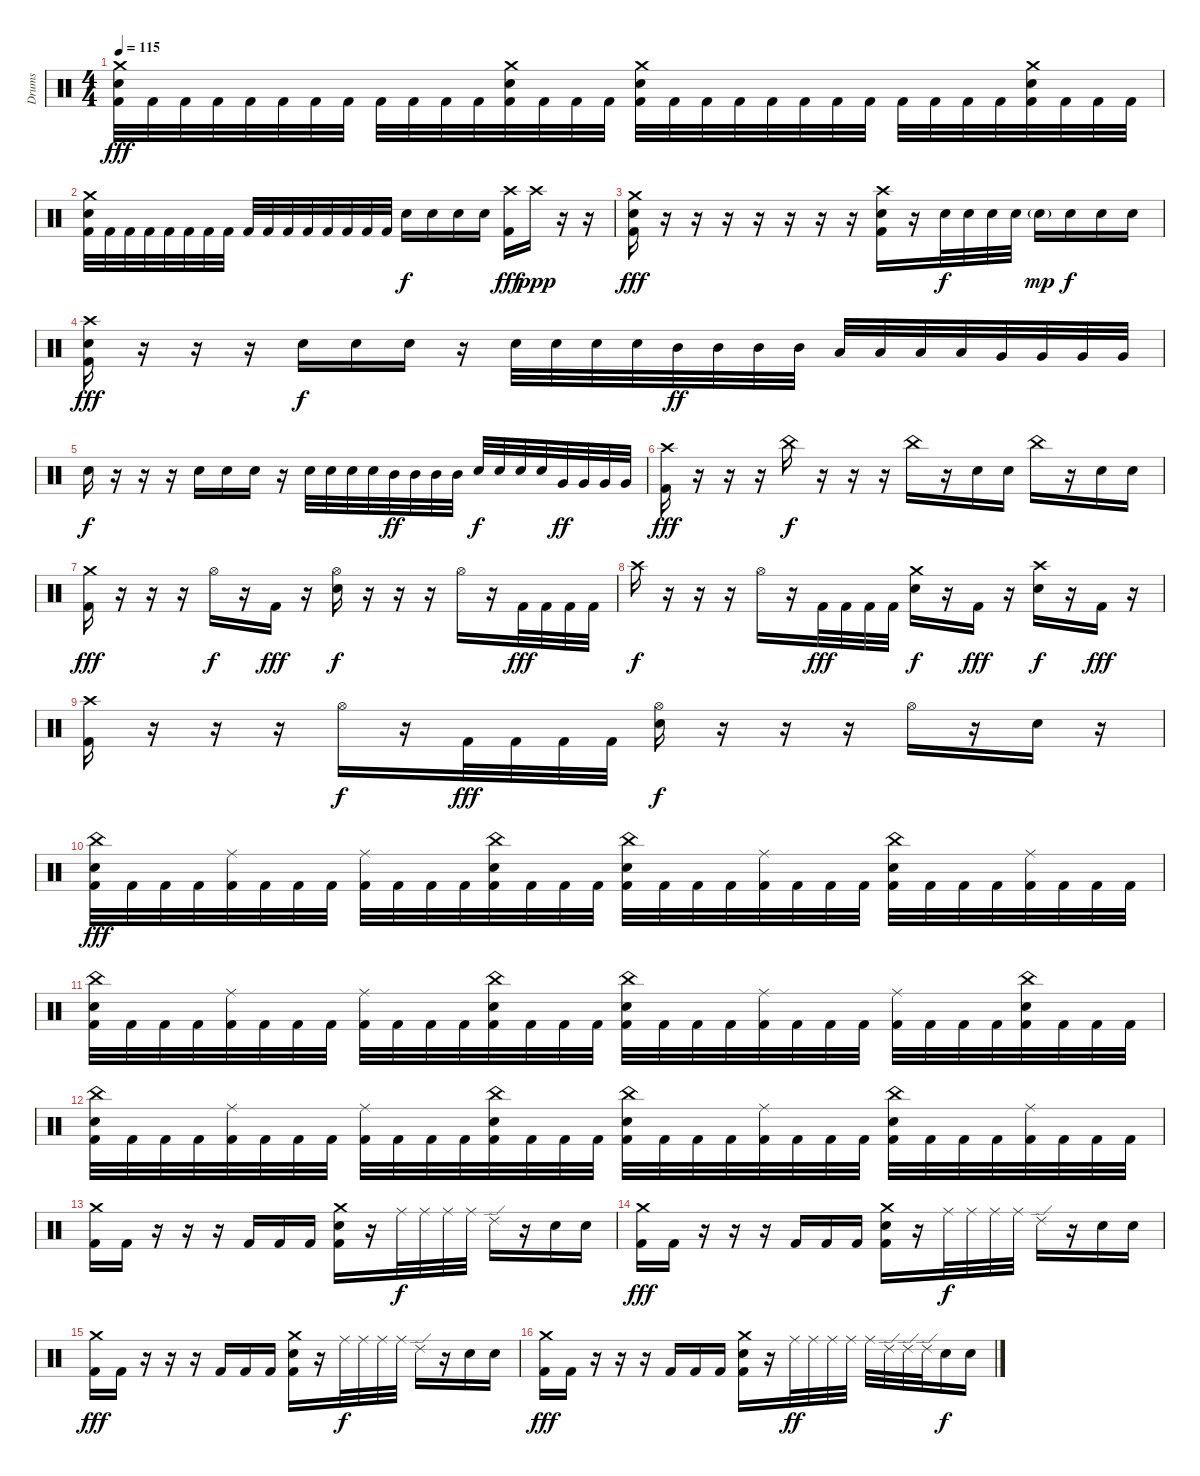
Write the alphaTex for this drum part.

\track ("Drums" "Drums") {instrument percussion}
\staff {score}
\articulation defaults
\ts (4 4)
\tempo 115
\clef neutral
\ks c
("Crash medium (hit)" "Electric Snare (hit)" "Kick (hit) 2").32{dy fff} "Kick (hit) 2".32 "Kick (hit) 2".32 "Kick (hit) 2".32 "Kick (hit) 2".32 "Kick (hit) 2".32 "Kick (hit) 2".32 "Kick (hit) 2".32 "Kick (hit) 2".32 "Kick (hit) 2".32 "Kick (hit) 2".32 "Kick (hit) 2".32 ("Crash medium (hit)" "Electric Snare (hit)" "Kick (hit) 2").32 "Kick (hit) 2".32 "Kick (hit) 2".32 "Kick (hit) 2".32 ("Crash medium (hit)" "Electric Snare (hit)" "Kick (hit) 2").32 "Kick (hit) 2".32 "Kick (hit) 2".32 "Kick (hit) 2".32 "Kick (hit) 2".32 "Kick (hit) 2".32 "Kick (hit) 2".32 "Kick (hit) 2".32 "Kick (hit) 2".32 "Kick (hit) 2".32 "Kick (hit) 2".32 "Kick (hit) 2".32 ("Crash medium (hit)" "Electric Snare (hit)" "Kick (hit) 2").32 "Kick (hit) 2".32 "Kick (hit) 2".32 "Kick (hit) 2".32 |
("Crash medium (hit)" "Electric Snare (hit)" "Kick (hit) 2").32 "Kick (hit) 2".32 "Kick (hit) 2".32 "Kick (hit) 2".32 "Kick (hit) 2".32 "Kick (hit) 2".32 "Kick (hit) 2".32 "Kick (hit) 2".32 "Kick (hit) 2".32 "Kick (hit) 2".32 "Kick (hit) 2".32 "Kick (hit) 2".32 "Kick (hit) 2".32 "Kick (hit) 2".32 "Kick (hit) 2".32 "Kick (hit) 2".32 "Electric Snare (hit)".16{dy f} "Electric Snare (hit)".16 "Electric Snare (hit)".16 "Electric Snare (hit)".16 ("Crash high (hit)" "Kick (hit) 2").16{dy fff} "Crash high (hit)".16{dy ppp} r.16 r.16 |
("Crash medium (hit)" "Electric Snare (hit)" "Kick (hit) 2").16{dy fff} r.16 r.16 r.16 r.16 r.16 r.16 r.16 ("Crash high (hit)" "Electric Snare (hit)" "Kick (hit) 2").16 r.16 "Electric Snare (hit)".32{dy f} "Electric Snare (hit)".32 "Electric Snare (hit)".32 "Electric Snare (hit)".32 "Electric Snare (hit)"{g}.16{dy mp} "Electric Snare (hit)".16{dy f} "Electric Snare (hit)".16 "Electric Snare (hit)".16 |
("Crash high (hit)" "Electric Snare (hit)" "Kick (hit) 2").16{dy fff} r.16 r.16 r.16 "Electric Snare (hit)".16{dy f} "Electric Snare (hit)".16 "Electric Snare (hit)".16 r.16 "Electric Snare (hit)".32 "Electric Snare (hit)".32 "Electric Snare (hit)".32 "Electric Snare (hit)".32 "Mid Tom (hit)".32{dy ff} "Mid Tom (hit)".32 "Mid Tom (hit)".32 "Mid Tom (hit)".32 "Low Tom (hit)".32 "Low Tom (hit)".32 "Low Tom (hit)".32 "Low Tom (hit)".32 "Very Low Tom (hit)".32 "Very Low Tom (hit)".32 "Very Low Tom (hit)".32 "Very Low Tom (hit)".32 |
"Electric Snare (hit)".16{dy f} r.16 r.16 r.16 "Electric Snare (hit)".16 "Electric Snare (hit)".16 "Electric Snare (hit)".16 r.16 "Electric Snare (hit)".32 "Electric Snare (hit)".32 "Electric Snare (hit)".32 "Electric Snare (hit)".32 "Mid Tom (hit)".32{dy ff} "Mid Tom (hit)".32 "Mid Tom (hit)".32 "Mid Tom (hit)".32 "Electric Snare (hit)".32{dy f} "Electric Snare (hit)".32 "Electric Snare (hit)".32 "Electric Snare (hit)".32 "Very Low Tom (hit)".32{dy ff} "Very Low Tom (hit)".32 "Very Low Tom (hit)".32 "Very Low Tom (hit)".32 |
("Crash high (hit)" "Kick (hit) 2").16{dy fff} r.16 r.16 r.16 "China (hit)".16{dy f} r.16 r.16 r.16 "China (hit)".16 r.16 "Electric Snare (hit)".16 "Electric Snare (hit)".16 "China (hit)".16 r.16 "Electric Snare (hit)".16 "Electric Snare (hit)".16 |
("Crash medium (hit)" "Kick (hit) 2").16{dy fff} r.16 r.16 r.16 "Hi-Hat (open)".16{dy f} r.16 "Kick (hit) 2".16{dy fff} r.16 ("Hi-Hat (open)" "Electric Snare (hit)").16{dy f} r.16 r.16 r.16 "Hi-Hat (open)".16 r.16 "Kick (hit) 2".32{dy fff} "Kick (hit) 2".32 "Kick (hit) 2".32 "Kick (hit) 2".32 |
"Crash high (hit)".16{dy f} r.16 r.16 r.16 "Hi-Hat (open)".16 r.16 "Kick (hit) 2".32{dy fff} "Kick (hit) 2".32 "Kick (hit) 2".32 "Kick (hit) 2".32 ("Crash medium (hit)" "Electric Snare (hit)").16{dy f} r.16 "Kick (hit) 2".16{dy fff} r.16 ("Crash high (hit)" "Electric Snare (hit)").16{dy f} r.16 "Kick (hit) 2".16{dy fff} r.16 |
("Crash high (hit)" "Kick (hit) 2").16 r.16 r.16 r.16 "Hi-Hat (open)".16{dy f} r.16 "Kick (hit) 2".32{dy fff} "Kick (hit) 2".32 "Kick (hit) 2".32 "Kick (hit) 2".32 ("Hi-Hat (open)" "Electric Snare (hit)").16{dy f} r.16 r.16 r.16 "Hi-Hat (open)".16 r.16 "Electric Snare (hit)".16 r.16 |
("China (hit)" "Electric Snare (hit)" "Kick (hit) 2").32{dy fff} "Kick (hit) 2".32 "Kick (hit) 2".32 "Kick (hit) 2".32 ("Ride (middle)" "Kick (hit) 2").32 "Kick (hit) 2".32 "Kick (hit) 2".32 "Kick (hit) 2".32 ("Ride (middle)" "Kick (hit) 2").32 "Kick (hit) 2".32 "Kick (hit) 2".32 "Kick (hit) 2".32 ("China (hit)" "Electric Snare (hit)" "Kick (hit) 2").32 "Kick (hit) 2".32 "Kick (hit) 2".32 "Kick (hit) 2".32 ("China (hit)" "Electric Snare (hit)" "Kick (hit) 2").32 "Kick (hit) 2".32 "Kick (hit) 2".32 "Kick (hit) 2".32 ("Ride (middle)" "Kick (hit) 2").32 "Kick (hit) 2".32 "Kick (hit) 2".32 "Kick (hit) 2".32 ("China (hit)" "Electric Snare (hit)" "Kick (hit) 2").32 "Kick (hit) 2".32 "Kick (hit) 2".32 "Kick (hit) 2".32 ("Ride (middle)" "Kick (hit) 2").32 "Kick (hit) 2".32 "Kick (hit) 2".32 "Kick (hit) 2".32 |
("China (hit)" "Electric Snare (hit)" "Kick (hit) 2").32 "Kick (hit) 2".32 "Kick (hit) 2".32 "Kick (hit) 2".32 ("Ride (middle)" "Kick (hit) 2").32 "Kick (hit) 2".32 "Kick (hit) 2".32 "Kick (hit) 2".32 ("Ride (middle)" "Kick (hit) 2").32 "Kick (hit) 2".32 "Kick (hit) 2".32 "Kick (hit) 2".32 ("China (hit)" "Electric Snare (hit)" "Kick (hit) 2").32 "Kick (hit) 2".32 "Kick (hit) 2".32 "Kick (hit) 2".32 ("China (hit)" "Electric Snare (hit)" "Kick (hit) 2").32 "Kick (hit) 2".32 "Kick (hit) 2".32 "Kick (hit) 2".32 ("Ride (middle)" "Kick (hit) 2").32 "Kick (hit) 2".32 "Kick (hit) 2".32 "Kick (hit) 2".32 ("Ride (middle)" "Kick (hit) 2").32 "Kick (hit) 2".32 "Kick (hit) 2".32 "Kick (hit) 2".32 ("China (hit)" "Electric Snare (hit)" "Kick (hit) 2").32 "Kick (hit) 2".32 "Kick (hit) 2".32 "Kick (hit) 2".32 |
("China (hit)" "Electric Snare (hit)" "Kick (hit) 2").32 "Kick (hit) 2".32 "Kick (hit) 2".32 "Kick (hit) 2".32 ("Ride (middle)" "Kick (hit) 2").32 "Kick (hit) 2".32 "Kick (hit) 2".32 "Kick (hit) 2".32 ("Ride (middle)" "Kick (hit) 2").32 "Kick (hit) 2".32 "Kick (hit) 2".32 "Kick (hit) 2".32 ("China (hit)" "Electric Snare (hit)" "Kick (hit) 2").32 "Kick (hit) 2".32 "Kick (hit) 2".32 "Kick (hit) 2".32 ("China (hit)" "Electric Snare (hit)" "Kick (hit) 2").32 "Kick (hit) 2".32 "Kick (hit) 2".32 "Kick (hit) 2".32 ("Ride (middle)" "Kick (hit) 2").32 "Kick (hit) 2".32 "Kick (hit) 2".32 "Kick (hit) 2".32 ("China (hit)" "Electric Snare (hit)" "Kick (hit) 2").32 "Kick (hit) 2".32 "Kick (hit) 2".32 "Kick (hit) 2".32 ("Ride (middle)" "Kick (hit) 2").32 "Kick (hit) 2".32 "Kick (hit) 2".32 "Kick (hit) 2".32 |
("Crash medium (hit)" "Kick (hit) 2").16 "Kick (hit) 2".16 r.16 r.16 r.16 "Kick (hit) 2".16 "Kick (hit) 2".16 "Kick (hit) 2".16 ("Crash medium (hit)" "Electric Snare (hit)" "Kick (hit) 2").16 r.16 "Ride (middle)".32{dy f} "Ride (middle)".32 "Ride (middle)".32 "Ride (middle)".32 "Ride (edge) 2".16 r.16 "Electric Snare (hit)".16 "Electric Snare (hit)".16 |
("Crash medium (hit)" "Kick (hit) 2").16{dy fff} "Kick (hit) 2".16 r.16 r.16 r.16 "Kick (hit) 2".16 "Kick (hit) 2".16 "Kick (hit) 2".16 ("Crash medium (hit)" "Electric Snare (hit)" "Kick (hit) 2").16 r.16 "Ride (middle)".32{dy f} "Ride (middle)".32 "Ride (middle)".32 "Ride (middle)".32 "Ride (edge) 2".16 r.16 "Electric Snare (hit)".16 "Electric Snare (hit)".16 |
("Crash medium (hit)" "Kick (hit) 2").16{dy fff} "Kick (hit) 2".16 r.16 r.16 r.16 "Kick (hit) 2".16 "Kick (hit) 2".16 "Kick (hit) 2".16 ("Crash medium (hit)" "Electric Snare (hit)" "Kick (hit) 2").16 r.16 "Ride (middle)".32{dy f} "Ride (middle)".32 "Ride (middle)".32 "Ride (middle)".32 "Ride (edge) 2".16 r.16 "Electric Snare (hit)".16 "Electric Snare (hit)".16 |
("Crash medium (hit)" "Kick (hit) 2").16{dy fff} "Kick (hit) 2".16 r.16 r.16 r.16 "Kick (hit) 2".16 "Kick (hit) 2".16 "Kick (hit) 2".16 ("Crash medium (hit)" "Electric Snare (hit)" "Kick (hit) 2").16 r.16 "Ride (middle)".32{dy ff} "Ride (middle)".32 "Ride (middle)".32 "Ride (middle)".32 "Ride (middle)".32 "Ride (edge) 2".32 "Ride (edge) 2".32 "Ride (edge) 2".32 "Electric Snare (hit)".16{dy f} "Electric Snare (hit)".16
